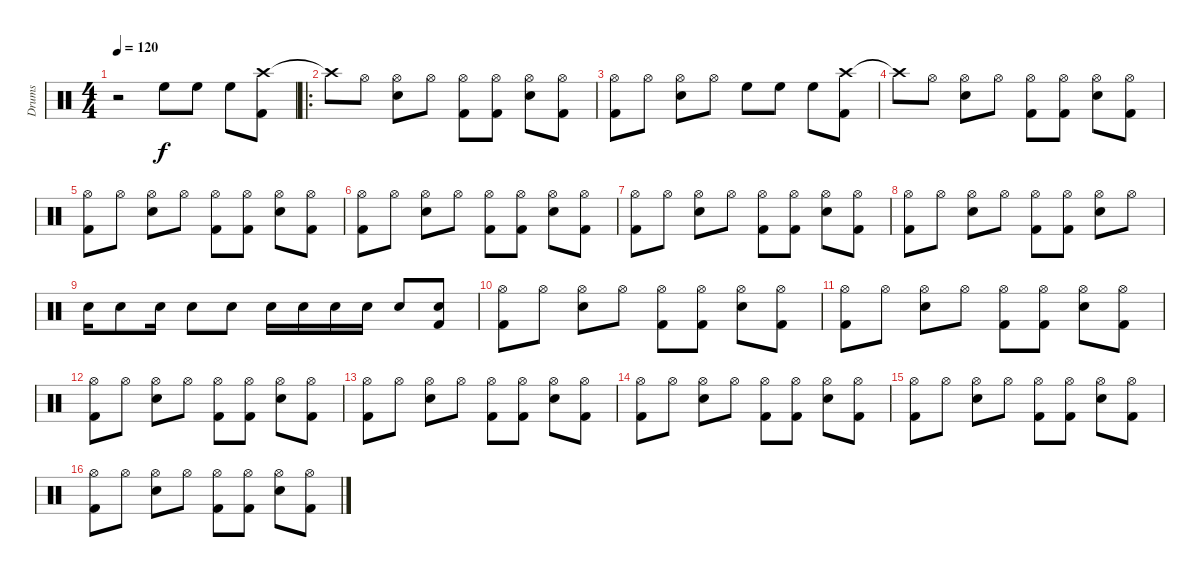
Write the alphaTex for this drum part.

\track ("Drums" "Drums") {instrument percussion}
\staff {score}
\articulation defaults
\ts (4 4)
\tempo 120
\clef neutral
\ks c
r.2{dy f} "High Floor Tom (hit)".8 "High Floor Tom (hit)".8 "High Floor Tom (hit)".8 ("Crash high (hit)" "Kick (hit) 2").8 |
\ro "Crash high (hit)"{t}.8 "Hi-Hat (open)".8
("Hi-Hat (open)" "Snare (hit) 2").8 "Hi-Hat (open)".8 ("Hi-Hat (open)" "Kick (hit) 2").8 ("Hi-Hat (open)" "Kick (hit) 2").8 ("Hi-Hat (open)" "Snare (hit) 2").8 ("Hi-Hat (open)" "Kick (hit) 2").8 |
("Hi-Hat (open)" "Kick (hit) 2").8 "Hi-Hat (open)".8 ("Hi-Hat (open)" "Snare (hit) 2").8 "Hi-Hat (open)".8 "High Floor Tom (hit)".8 "High Floor Tom (hit)".8 "High Floor Tom (hit)".8 ("Crash high (hit)" "Kick (hit) 2").8 |
"Crash high (hit)"{t}.8 "Hi-Hat (open)".8 ("Hi-Hat (open)" "Snare (hit) 2").8 "Hi-Hat (open)".8 ("Hi-Hat (open)" "Kick (hit) 2").8 ("Hi-Hat (open)" "Kick (hit) 2").8 ("Hi-Hat (open)" "Snare (hit) 2").8 ("Hi-Hat (open)" "Kick (hit) 2").8 |
("Hi-Hat (open)" "Kick (hit) 2").8 "Hi-Hat (open)".8 ("Hi-Hat (open)" "Snare (hit) 2").8 "Hi-Hat (open)".8 ("Hi-Hat (open)" "Kick (hit) 2").8 ("Hi-Hat (open)" "Kick (hit) 2").8 ("Hi-Hat (open)" "Snare (hit) 2").8 ("Hi-Hat (open)" "Kick (hit) 2").8 |
("Hi-Hat (open)" "Kick (hit) 2").8 "Hi-Hat (open)".8 ("Hi-Hat (open)" "Snare (hit) 2").8 "Hi-Hat (open)".8 ("Hi-Hat (open)" "Kick (hit) 2").8 ("Hi-Hat (open)" "Kick (hit) 2").8 ("Hi-Hat (open)" "Snare (hit) 2").8 ("Hi-Hat (open)" "Kick (hit) 2").8 |
("Hi-Hat (open)" "Kick (hit) 2").8 "Hi-Hat (open)".8 ("Hi-Hat (open)" "Snare (hit) 2").8 "Hi-Hat (open)".8 ("Hi-Hat (open)" "Kick (hit) 2").8 ("Hi-Hat (open)" "Kick (hit) 2").8 ("Hi-Hat (open)" "Snare (hit) 2").8 ("Hi-Hat (open)" "Kick (hit) 2").8 |
("Hi-Hat (open)" "Kick (hit) 2").8 "Hi-Hat (open)".8 ("Hi-Hat (open)" "Snare (hit) 2").8 "Hi-Hat (open)".8 ("Hi-Hat (open)" "Kick (hit) 2").8 ("Hi-Hat (open)" "Kick (hit) 2").8 ("Hi-Hat (open)" "Snare (hit) 2").8 "Hi-Hat (open)".8 |
"Snare (hit) 2".16 "Snare (hit) 2".8 "Snare (hit) 2".16 "Snare (hit) 2".8 "Snare (hit) 2".8 "Snare (hit) 2".16 "Snare (hit) 2".16 "Snare (hit) 2".16 "Snare (hit) 2".16 "Snare (hit) 2".8 ("Snare (hit) 2" "Kick (hit) 2").8 |
("Hi-Hat (open)" "Kick (hit) 2").8 "Hi-Hat (open)".8 ("Hi-Hat (open)" "Snare (hit) 2").8 "Hi-Hat (open)".8 ("Hi-Hat (open)" "Kick (hit) 2").8 ("Hi-Hat (open)" "Kick (hit) 2").8 ("Hi-Hat (open)" "Snare (hit) 2").8 ("Hi-Hat (open)" "Kick (hit) 2").8 |
("Hi-Hat (open)" "Kick (hit) 2").8 "Hi-Hat (open)".8 ("Hi-Hat (open)" "Snare (hit) 2").8 "Hi-Hat (open)".8 ("Hi-Hat (open)" "Kick (hit) 2").8 ("Hi-Hat (open)" "Kick (hit) 2").8 ("Hi-Hat (open)" "Snare (hit) 2").8 ("Hi-Hat (open)" "Kick (hit) 2").8 |
("Hi-Hat (open)" "Kick (hit) 2").8 "Hi-Hat (open)".8 ("Hi-Hat (open)" "Snare (hit) 2").8 "Hi-Hat (open)".8 ("Hi-Hat (open)" "Kick (hit) 2").8 ("Hi-Hat (open)" "Kick (hit) 2").8 ("Hi-Hat (open)" "Snare (hit) 2").8 ("Hi-Hat (open)" "Kick (hit) 2").8 |
("Hi-Hat (open)" "Kick (hit) 2").8 "Hi-Hat (open)".8 ("Hi-Hat (open)" "Snare (hit) 2").8 "Hi-Hat (open)".8 ("Hi-Hat (open)" "Kick (hit) 2").8 ("Hi-Hat (open)" "Kick (hit) 2").8 ("Hi-Hat (open)" "Snare (hit) 2").8 ("Hi-Hat (open)" "Kick (hit) 2").8 |
("Hi-Hat (open)" "Kick (hit) 2").8 "Hi-Hat (open)".8 ("Hi-Hat (open)" "Snare (hit) 2").8 "Hi-Hat (open)".8 ("Hi-Hat (open)" "Kick (hit) 2").8 ("Hi-Hat (open)" "Kick (hit) 2").8 ("Hi-Hat (open)" "Snare (hit) 2").8 ("Hi-Hat (open)" "Kick (hit) 2").8 |
("Hi-Hat (open)" "Kick (hit) 2").8 "Hi-Hat (open)".8 ("Hi-Hat (open)" "Snare (hit) 2").8 "Hi-Hat (open)".8 ("Hi-Hat (open)" "Kick (hit) 2").8 ("Hi-Hat (open)" "Kick (hit) 2").8 ("Hi-Hat (open)" "Snare (hit) 2").8 ("Hi-Hat (open)" "Kick (hit) 2").8 |
("Hi-Hat (open)" "Kick (hit) 2").8 "Hi-Hat (open)".8 ("Hi-Hat (open)" "Snare (hit) 2").8 "Hi-Hat (open)".8 ("Hi-Hat (open)" "Kick (hit) 2").8 ("Hi-Hat (open)" "Kick (hit) 2").8 ("Hi-Hat (open)" "Snare (hit) 2").8 ("Hi-Hat (open)" "Kick (hit) 2").8
